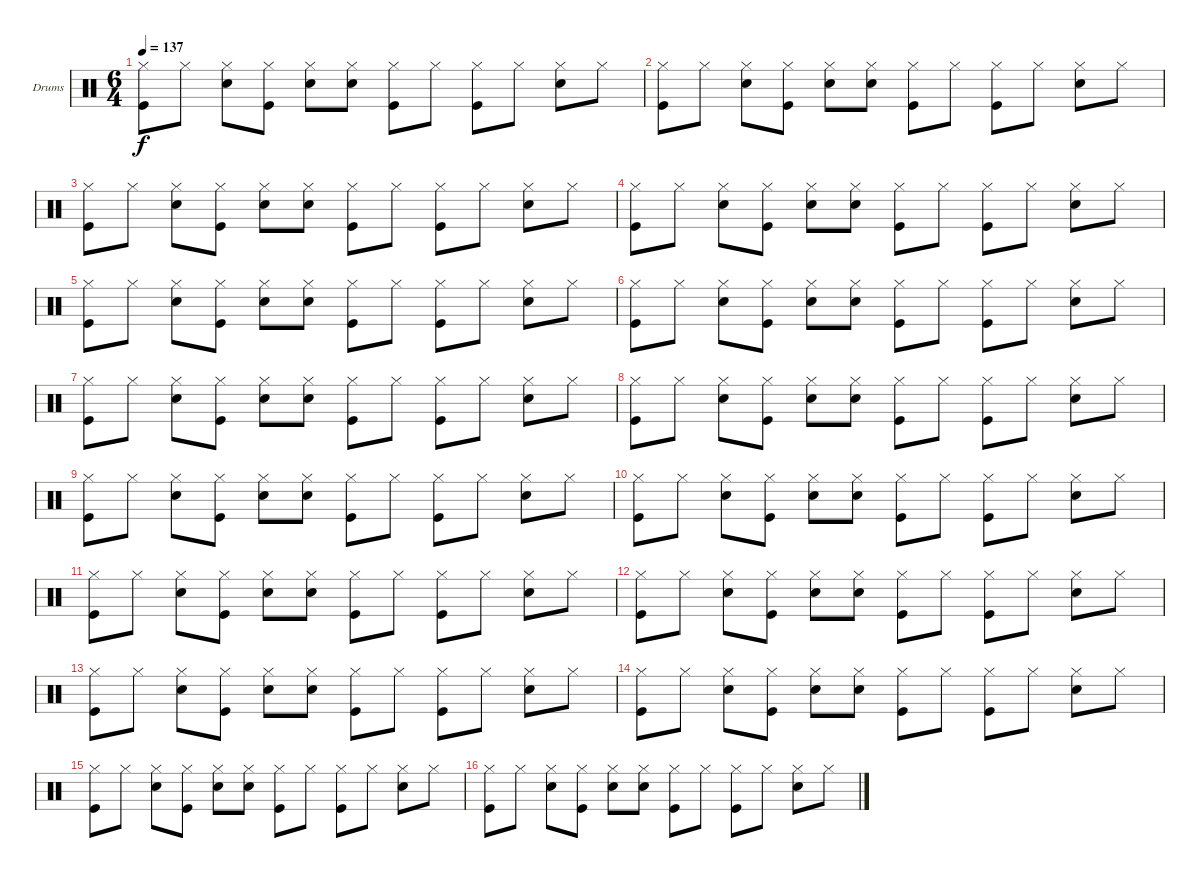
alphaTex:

\bracketExtendMode groupsimilarinstruments
\firstSystemTrackNameOrientation horizontal
\otherSystemsTrackNameOrientation horizontal
\track ("Peter Ulrich (Drums)" "Drums") {instrument percussion}
\staff {score}
\articulation defaults
\ts (6 4)
\tempo 137
\clef neutral
\ks c
("Hi-Hat (closed)" "Kick (hit)").8{dy f} "Hi-Hat (closed)".8 ("Hi-Hat (closed)" "Snare (hit) 2").8 ("Hi-Hat (closed)" "Kick (hit)").8 ("Hi-Hat (closed)" "Snare (hit) 2").8 ("Hi-Hat (closed)" "Snare (hit) 2").8 ("Hi-Hat (closed)" "Kick (hit)").8 "Hi-Hat (closed)".8 ("Hi-Hat (closed)" "Kick (hit)").8 "Hi-Hat (closed)".8 ("Hi-Hat (closed)" "Snare (hit) 2").8 "Hi-Hat (closed)".8 |
("Hi-Hat (closed)" "Kick (hit)").8 "Hi-Hat (closed)".8 ("Hi-Hat (closed)" "Snare (hit) 2").8 ("Hi-Hat (closed)" "Kick (hit)").8 ("Hi-Hat (closed)" "Snare (hit) 2").8 ("Hi-Hat (closed)" "Snare (hit) 2").8 ("Hi-Hat (closed)" "Kick (hit)").8 "Hi-Hat (closed)".8 ("Hi-Hat (closed)" "Kick (hit)").8 "Hi-Hat (closed)".8 ("Hi-Hat (closed)" "Snare (hit) 2").8 "Hi-Hat (closed)".8 |
("Hi-Hat (closed)" "Kick (hit)").8 "Hi-Hat (closed)".8 ("Hi-Hat (closed)" "Snare (hit) 2").8 ("Hi-Hat (closed)" "Kick (hit)").8 ("Hi-Hat (closed)" "Snare (hit) 2").8 ("Hi-Hat (closed)" "Snare (hit) 2").8 ("Hi-Hat (closed)" "Kick (hit)").8 "Hi-Hat (closed)".8 ("Hi-Hat (closed)" "Kick (hit)").8 "Hi-Hat (closed)".8 ("Hi-Hat (closed)" "Snare (hit) 2").8 "Hi-Hat (closed)".8 |
("Hi-Hat (closed)" "Kick (hit)").8 "Hi-Hat (closed)".8 ("Hi-Hat (closed)" "Snare (hit) 2").8 ("Hi-Hat (closed)" "Kick (hit)").8 ("Hi-Hat (closed)" "Snare (hit) 2").8 ("Hi-Hat (closed)" "Snare (hit) 2").8 ("Hi-Hat (closed)" "Kick (hit)").8 "Hi-Hat (closed)".8 ("Hi-Hat (closed)" "Kick (hit)").8 "Hi-Hat (closed)".8 ("Hi-Hat (closed)" "Snare (hit) 2").8 "Hi-Hat (closed)".8 |
("Hi-Hat (closed)" "Kick (hit)").8 "Hi-Hat (closed)".8 ("Hi-Hat (closed)" "Snare (hit) 2").8 ("Hi-Hat (closed)" "Kick (hit)").8 ("Hi-Hat (closed)" "Snare (hit) 2").8 ("Hi-Hat (closed)" "Snare (hit) 2").8 ("Hi-Hat (closed)" "Kick (hit)").8 "Hi-Hat (closed)".8 ("Hi-Hat (closed)" "Kick (hit)").8 "Hi-Hat (closed)".8 ("Hi-Hat (closed)" "Snare (hit) 2").8 "Hi-Hat (closed)".8 |
("Hi-Hat (closed)" "Kick (hit)").8 "Hi-Hat (closed)".8 ("Hi-Hat (closed)" "Snare (hit) 2").8 ("Hi-Hat (closed)" "Kick (hit)").8 ("Hi-Hat (closed)" "Snare (hit) 2").8 ("Hi-Hat (closed)" "Snare (hit) 2").8 ("Hi-Hat (closed)" "Kick (hit)").8 "Hi-Hat (closed)".8 ("Hi-Hat (closed)" "Kick (hit)").8 "Hi-Hat (closed)".8 ("Hi-Hat (closed)" "Snare (hit) 2").8 "Hi-Hat (closed)".8 |
("Hi-Hat (closed)" "Kick (hit)").8 "Hi-Hat (closed)".8 ("Hi-Hat (closed)" "Snare (hit) 2").8 ("Hi-Hat (closed)" "Kick (hit)").8 ("Hi-Hat (closed)" "Snare (hit) 2").8 ("Hi-Hat (closed)" "Snare (hit) 2").8 ("Hi-Hat (closed)" "Kick (hit)").8 "Hi-Hat (closed)".8 ("Hi-Hat (closed)" "Kick (hit)").8 "Hi-Hat (closed)".8 ("Hi-Hat (closed)" "Snare (hit) 2").8 "Hi-Hat (closed)".8 |
("Hi-Hat (closed)" "Kick (hit)").8 "Hi-Hat (closed)".8 ("Hi-Hat (closed)" "Snare (hit) 2").8 ("Hi-Hat (closed)" "Kick (hit)").8 ("Hi-Hat (closed)" "Snare (hit) 2").8 ("Hi-Hat (closed)" "Snare (hit) 2").8 ("Hi-Hat (closed)" "Kick (hit)").8 "Hi-Hat (closed)".8 ("Hi-Hat (closed)" "Kick (hit)").8 "Hi-Hat (closed)".8 ("Hi-Hat (closed)" "Snare (hit) 2").8 "Hi-Hat (closed)".8 |
("Hi-Hat (closed)" "Kick (hit)").8 "Hi-Hat (closed)".8 ("Hi-Hat (closed)" "Snare (hit) 2").8 ("Hi-Hat (closed)" "Kick (hit)").8 ("Hi-Hat (closed)" "Snare (hit) 2").8 ("Hi-Hat (closed)" "Snare (hit) 2").8 ("Hi-Hat (closed)" "Kick (hit)").8 "Hi-Hat (closed)".8 ("Hi-Hat (closed)" "Kick (hit)").8 "Hi-Hat (closed)".8 ("Hi-Hat (closed)" "Snare (hit) 2").8 "Hi-Hat (closed)".8 |
("Hi-Hat (closed)" "Kick (hit)").8 "Hi-Hat (closed)".8 ("Hi-Hat (closed)" "Snare (hit) 2").8 ("Hi-Hat (closed)" "Kick (hit)").8 ("Hi-Hat (closed)" "Snare (hit) 2").8 ("Hi-Hat (closed)" "Snare (hit) 2").8 ("Hi-Hat (closed)" "Kick (hit)").8 "Hi-Hat (closed)".8 ("Hi-Hat (closed)" "Kick (hit)").8 "Hi-Hat (closed)".8 ("Hi-Hat (closed)" "Snare (hit) 2").8 "Hi-Hat (closed)".8 |
("Hi-Hat (closed)" "Kick (hit)").8 "Hi-Hat (closed)".8 ("Hi-Hat (closed)" "Snare (hit) 2").8 ("Hi-Hat (closed)" "Kick (hit)").8 ("Hi-Hat (closed)" "Snare (hit) 2").8 ("Hi-Hat (closed)" "Snare (hit) 2").8 ("Hi-Hat (closed)" "Kick (hit)").8 "Hi-Hat (closed)".8 ("Hi-Hat (closed)" "Kick (hit)").8 "Hi-Hat (closed)".8 ("Hi-Hat (closed)" "Snare (hit) 2").8 "Hi-Hat (closed)".8 |
("Hi-Hat (closed)" "Kick (hit)").8 "Hi-Hat (closed)".8 ("Hi-Hat (closed)" "Snare (hit) 2").8 ("Hi-Hat (closed)" "Kick (hit)").8 ("Hi-Hat (closed)" "Snare (hit) 2").8 ("Hi-Hat (closed)" "Snare (hit) 2").8 ("Hi-Hat (closed)" "Kick (hit)").8 "Hi-Hat (closed)".8 ("Hi-Hat (closed)" "Kick (hit)").8 "Hi-Hat (closed)".8 ("Hi-Hat (closed)" "Snare (hit) 2").8 "Hi-Hat (closed)".8 |
("Hi-Hat (closed)" "Kick (hit)").8 "Hi-Hat (closed)".8 ("Hi-Hat (closed)" "Snare (hit) 2").8 ("Hi-Hat (closed)" "Kick (hit)").8 ("Hi-Hat (closed)" "Snare (hit) 2").8 ("Hi-Hat (closed)" "Snare (hit) 2").8 ("Hi-Hat (closed)" "Kick (hit)").8 "Hi-Hat (closed)".8 ("Hi-Hat (closed)" "Kick (hit)").8 "Hi-Hat (closed)".8 ("Hi-Hat (closed)" "Snare (hit) 2").8 "Hi-Hat (closed)".8 |
("Hi-Hat (closed)" "Kick (hit)").8 "Hi-Hat (closed)".8 ("Hi-Hat (closed)" "Snare (hit) 2").8 ("Hi-Hat (closed)" "Kick (hit)").8 ("Hi-Hat (closed)" "Snare (hit) 2").8 ("Hi-Hat (closed)" "Snare (hit) 2").8 ("Hi-Hat (closed)" "Kick (hit)").8 "Hi-Hat (closed)".8 ("Hi-Hat (closed)" "Kick (hit)").8 "Hi-Hat (closed)".8 ("Hi-Hat (closed)" "Snare (hit) 2").8 "Hi-Hat (closed)".8 |
("Hi-Hat (closed)" "Kick (hit)").8 "Hi-Hat (closed)".8 ("Hi-Hat (closed)" "Snare (hit) 2").8 ("Hi-Hat (closed)" "Kick (hit)").8 ("Hi-Hat (closed)" "Snare (hit) 2").8 ("Hi-Hat (closed)" "Snare (hit) 2").8 ("Hi-Hat (closed)" "Kick (hit)").8 "Hi-Hat (closed)".8 ("Hi-Hat (closed)" "Kick (hit)").8 "Hi-Hat (closed)".8 ("Hi-Hat (closed)" "Snare (hit) 2").8 "Hi-Hat (closed)".8 |
("Hi-Hat (closed)" "Kick (hit)").8 "Hi-Hat (closed)".8 ("Hi-Hat (closed)" "Snare (hit) 2").8 ("Hi-Hat (closed)" "Kick (hit)").8 ("Hi-Hat (closed)" "Snare (hit) 2").8 ("Hi-Hat (closed)" "Snare (hit) 2").8 ("Hi-Hat (closed)" "Kick (hit)").8 "Hi-Hat (closed)".8 ("Hi-Hat (closed)" "Kick (hit)").8 "Hi-Hat (closed)".8 ("Hi-Hat (closed)" "Snare (hit) 2").8 "Hi-Hat (closed)".8
